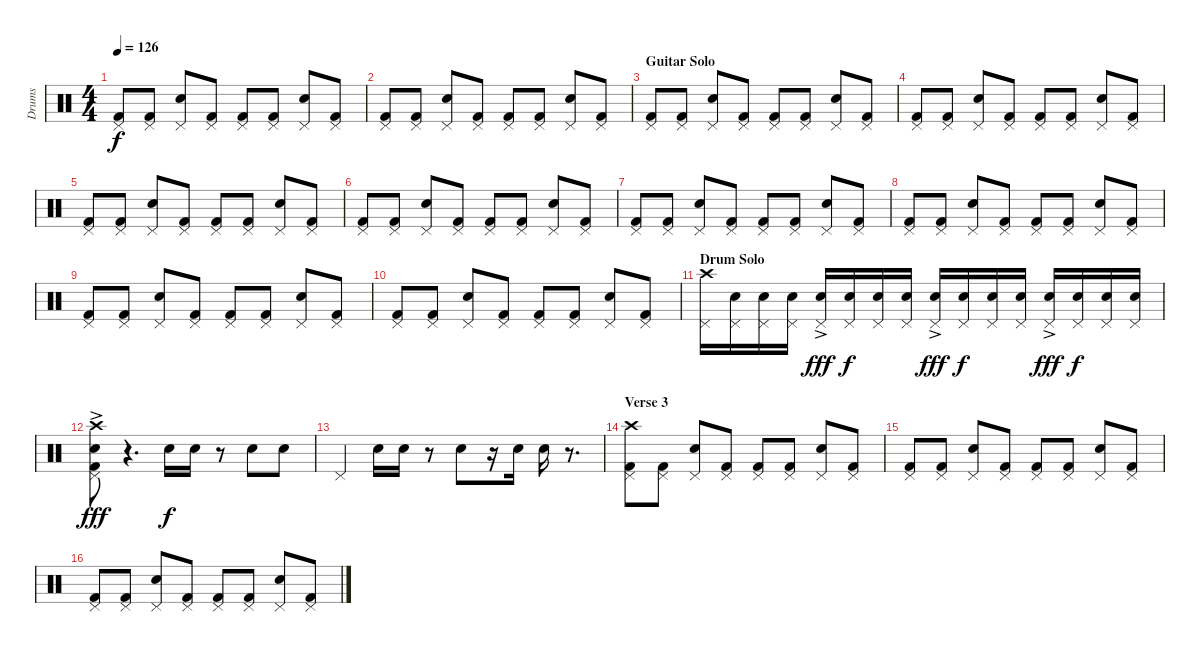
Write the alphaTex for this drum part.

\track ("Drums" "Drums") {instrument percussion}
\staff {score}
\articulation defaults
\ts (4 4)
\tempo 126
\clef neutral
\ks c
("Kick (hit) 2" "Pedal Hi-Hat (hit)").8{dy f} ("Kick (hit) 2" "Pedal Hi-Hat (hit)").8 ("Snare (hit) 2" "Pedal Hi-Hat (hit)").8 ("Kick (hit) 2" "Pedal Hi-Hat (hit)").8 ("Kick (hit) 2" "Pedal Hi-Hat (hit)").8 ("Kick (hit) 2" "Pedal Hi-Hat (hit)").8 ("Snare (hit) 2" "Pedal Hi-Hat (hit)").8 ("Kick (hit) 2" "Pedal Hi-Hat (hit)").8 |
("Kick (hit) 2" "Pedal Hi-Hat (hit)").8 ("Kick (hit) 2" "Pedal Hi-Hat (hit)").8 ("Snare (hit) 2" "Pedal Hi-Hat (hit)").8 ("Kick (hit) 2" "Pedal Hi-Hat (hit)").8 ("Kick (hit) 2" "Pedal Hi-Hat (hit)").8 ("Kick (hit) 2" "Pedal Hi-Hat (hit)").8 ("Snare (hit) 2" "Pedal Hi-Hat (hit)").8 ("Kick (hit) 2" "Pedal Hi-Hat (hit)").8 |
\section ("" "Guitar Solo")
("Kick (hit) 2" "Pedal Hi-Hat (hit)").8 ("Kick (hit) 2" "Pedal Hi-Hat (hit)").8 ("Snare (hit) 2" "Pedal Hi-Hat (hit)").8 ("Kick (hit) 2" "Pedal Hi-Hat (hit)").8 ("Kick (hit) 2" "Pedal Hi-Hat (hit)").8 ("Kick (hit) 2" "Pedal Hi-Hat (hit)").8 ("Snare (hit) 2" "Pedal Hi-Hat (hit)").8 ("Kick (hit) 2" "Pedal Hi-Hat (hit)").8 |
("Kick (hit) 2" "Pedal Hi-Hat (hit)").8 ("Kick (hit) 2" "Pedal Hi-Hat (hit)").8 ("Snare (hit) 2" "Pedal Hi-Hat (hit)").8 ("Kick (hit) 2" "Pedal Hi-Hat (hit)").8 ("Kick (hit) 2" "Pedal Hi-Hat (hit)").8 ("Kick (hit) 2" "Pedal Hi-Hat (hit)").8 ("Snare (hit) 2" "Pedal Hi-Hat (hit)").8 ("Kick (hit) 2" "Pedal Hi-Hat (hit)").8 |
("Kick (hit) 2" "Pedal Hi-Hat (hit)").8 ("Kick (hit) 2" "Pedal Hi-Hat (hit)").8 ("Snare (hit) 2" "Pedal Hi-Hat (hit)").8 ("Kick (hit) 2" "Pedal Hi-Hat (hit)").8 ("Kick (hit) 2" "Pedal Hi-Hat (hit)").8 ("Kick (hit) 2" "Pedal Hi-Hat (hit)").8 ("Snare (hit) 2" "Pedal Hi-Hat (hit)").8 ("Kick (hit) 2" "Pedal Hi-Hat (hit)").8 |
("Kick (hit) 2" "Pedal Hi-Hat (hit)").8 ("Kick (hit) 2" "Pedal Hi-Hat (hit)").8 ("Snare (hit) 2" "Pedal Hi-Hat (hit)").8 ("Kick (hit) 2" "Pedal Hi-Hat (hit)").8 ("Kick (hit) 2" "Pedal Hi-Hat (hit)").8 ("Kick (hit) 2" "Pedal Hi-Hat (hit)").8 ("Snare (hit) 2" "Pedal Hi-Hat (hit)").8 ("Kick (hit) 2" "Pedal Hi-Hat (hit)").8 |
("Kick (hit) 2" "Pedal Hi-Hat (hit)").8 ("Kick (hit) 2" "Pedal Hi-Hat (hit)").8 ("Snare (hit) 2" "Pedal Hi-Hat (hit)").8 ("Kick (hit) 2" "Pedal Hi-Hat (hit)").8 ("Kick (hit) 2" "Pedal Hi-Hat (hit)").8 ("Kick (hit) 2" "Pedal Hi-Hat (hit)").8 ("Snare (hit) 2" "Pedal Hi-Hat (hit)").8 ("Kick (hit) 2" "Pedal Hi-Hat (hit)").8 |
("Kick (hit) 2" "Pedal Hi-Hat (hit)").8 ("Kick (hit) 2" "Pedal Hi-Hat (hit)").8 ("Snare (hit) 2" "Pedal Hi-Hat (hit)").8 ("Kick (hit) 2" "Pedal Hi-Hat (hit)").8 ("Kick (hit) 2" "Pedal Hi-Hat (hit)").8 ("Kick (hit) 2" "Pedal Hi-Hat (hit)").8 ("Snare (hit) 2" "Pedal Hi-Hat (hit)").8 ("Kick (hit) 2" "Pedal Hi-Hat (hit)").8 |
("Kick (hit) 2" "Pedal Hi-Hat (hit)").8 ("Kick (hit) 2" "Pedal Hi-Hat (hit)").8 ("Snare (hit) 2" "Pedal Hi-Hat (hit)").8 ("Kick (hit) 2" "Pedal Hi-Hat (hit)").8 ("Kick (hit) 2" "Pedal Hi-Hat (hit)").8 ("Kick (hit) 2" "Pedal Hi-Hat (hit)").8 ("Snare (hit) 2" "Pedal Hi-Hat (hit)").8 ("Kick (hit) 2" "Pedal Hi-Hat (hit)").8 |
("Kick (hit) 2" "Pedal Hi-Hat (hit)").8 ("Kick (hit) 2" "Pedal Hi-Hat (hit)").8 ("Snare (hit) 2" "Pedal Hi-Hat (hit)").8 ("Kick (hit) 2" "Pedal Hi-Hat (hit)").8 ("Kick (hit) 2" "Pedal Hi-Hat (hit)").8 ("Kick (hit) 2" "Pedal Hi-Hat (hit)").8 ("Snare (hit) 2" "Pedal Hi-Hat (hit)").8 ("Kick (hit) 2" "Pedal Hi-Hat (hit)").8 |
\section ("" "Drum Solo")
("Pedal Hi-Hat (hit)" "Crash high (hit)").16 ("Pedal Hi-Hat (hit)" "Snare (hit) 2").16 ("Pedal Hi-Hat (hit)" "Snare (hit) 2").16 ("Pedal Hi-Hat (hit)" "Snare (hit) 2").16 ("Pedal Hi-Hat (hit)" "Snare (hit) 2"{ac}).16{dy fff} ("Pedal Hi-Hat (hit)" "Snare (hit) 2").16{dy f} ("Pedal Hi-Hat (hit)" "Snare (hit) 2").16 ("Pedal Hi-Hat (hit)" "Snare (hit) 2").16 ("Pedal Hi-Hat (hit)" "Snare (hit) 2"{ac}).16{dy fff} ("Pedal Hi-Hat (hit)" "Snare (hit) 2").16{dy f} ("Pedal Hi-Hat (hit)" "Snare (hit) 2").16 ("Pedal Hi-Hat (hit)" "Snare (hit) 2").16 ("Pedal Hi-Hat (hit)" "Snare (hit) 2"{ac}).16{dy fff} ("Pedal Hi-Hat (hit)" "Snare (hit) 2").16{dy f} ("Pedal Hi-Hat (hit)" "Snare (hit) 2").16 ("Pedal Hi-Hat (hit)" "Snare (hit) 2").16 |
("Pedal Hi-Hat (hit)" "Snare (hit) 2"{ac} "Crash high (hit)" "Kick (hit) 2").8{dy fff} r.4{d} "Snare (hit) 2".16{dy f} "Snare (hit) 2".16 r.8 "Snare (hit) 2".8 "Snare (hit) 2".8 |
"Pedal Hi-Hat (hit)".4 "Snare (hit) 2".16 "Snare (hit) 2".16 r.8 "Snare (hit) 2".8 r.16 "Snare (hit) 2".16 "Snare (hit) 2".16 r.8{d} |
\section ("" "Verse 3")
("Kick (hit) 2" "Pedal Hi-Hat (hit)" "Crash high (hit)").8 ("Kick (hit) 2" "Pedal Hi-Hat (hit)").8 ("Snare (hit) 2" "Pedal Hi-Hat (hit)").8 ("Kick (hit) 2" "Pedal Hi-Hat (hit)").8 ("Kick (hit) 2" "Pedal Hi-Hat (hit)").8 ("Kick (hit) 2" "Pedal Hi-Hat (hit)").8 ("Snare (hit) 2" "Pedal Hi-Hat (hit)").8 ("Kick (hit) 2" "Pedal Hi-Hat (hit)").8 |
("Kick (hit) 2" "Pedal Hi-Hat (hit)").8 ("Kick (hit) 2" "Pedal Hi-Hat (hit)").8 ("Snare (hit) 2" "Pedal Hi-Hat (hit)").8 ("Kick (hit) 2" "Pedal Hi-Hat (hit)").8 ("Kick (hit) 2" "Pedal Hi-Hat (hit)").8 ("Kick (hit) 2" "Pedal Hi-Hat (hit)").8 ("Snare (hit) 2" "Pedal Hi-Hat (hit)").8 ("Kick (hit) 2" "Pedal Hi-Hat (hit)").8 |
("Kick (hit) 2" "Pedal Hi-Hat (hit)").8 ("Kick (hit) 2" "Pedal Hi-Hat (hit)").8 ("Snare (hit) 2" "Pedal Hi-Hat (hit)").8 ("Kick (hit) 2" "Pedal Hi-Hat (hit)").8 ("Kick (hit) 2" "Pedal Hi-Hat (hit)").8 ("Kick (hit) 2" "Pedal Hi-Hat (hit)").8 ("Snare (hit) 2" "Pedal Hi-Hat (hit)").8 ("Kick (hit) 2" "Pedal Hi-Hat (hit)").8
